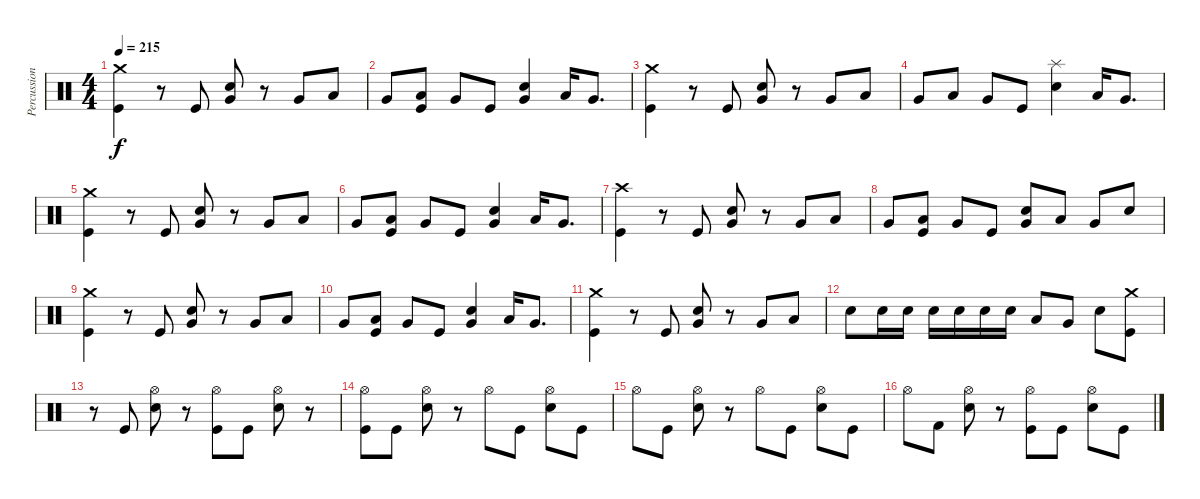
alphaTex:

\track ("Percussion" "Percussion") {instrument percussion}
\staff {score}
\articulation defaults
\ts (4 4)
\tempo 215
\clef neutral
\ks c
("Crash medium (hit)" "Kick (hit)").4{dy f} r.8 "Kick (hit)".8 ("Very Low Tom (hit)" "Electric Snare (hit)").8 r.8 "Very Low Tom (hit)".8 "Low Tom (hit)".8 |
"Very Low Tom (hit)".8 ("Low Tom (hit)" "Kick (hit)").8 "Very Low Tom (hit)".8 "Kick (hit)".8 ("Very Low Tom (hit)" "Electric Snare (hit)").4 "Low Tom (hit)".16 "Very Low Tom (hit)".8{d} |
("Crash medium (hit)" "Kick (hit)").4 r.8 "Kick (hit)".8 ("Very Low Tom (hit)" "Electric Snare (hit)").8 r.8 "Very Low Tom (hit)".8 "Low Tom (hit)".8 |
"Very Low Tom (hit)".8 "Low Tom (hit)".8 "Very Low Tom (hit)".8 "Kick (hit)".8 ("Splash (hit)" "Electric Snare (hit)").4 "Low Tom (hit)".16 "Very Low Tom (hit)".8{d} |
("Crash medium (hit)" "Kick (hit)").4 r.8 "Kick (hit)".8 ("Very Low Tom (hit)" "Electric Snare (hit)").8 r.8 "Very Low Tom (hit)".8 "Low Tom (hit)".8 |
"Very Low Tom (hit)".8 ("Low Tom (hit)" "Kick (hit)").8 "Very Low Tom (hit)".8 "Kick (hit)".8 ("Very Low Tom (hit)" "Electric Snare (hit)").4 "Low Tom (hit)".16 "Very Low Tom (hit)".8{d} |
("Crash high (hit)" "Kick (hit)").4 r.8 "Kick (hit)".8 ("Very Low Tom (hit)" "Electric Snare (hit)").8 r.8 "Very Low Tom (hit)".8 "Low Tom (hit)".8 |
"Very Low Tom (hit)".8 ("Low Tom (hit)" "Kick (hit)").8 "Very Low Tom (hit)".8 "Kick (hit)".8 ("Very Low Tom (hit)" "Electric Snare (hit)").8 "Low Tom (hit)".8 "Very Low Tom (hit)".8 "Electric Snare (hit)".8 |
("Crash medium (hit)" "Kick (hit)").4 r.8 "Kick (hit)".8 ("Very Low Tom (hit)" "Electric Snare (hit)").8 r.8 "Very Low Tom (hit)".8 "Low Tom (hit)".8 |
"Very Low Tom (hit)".8 ("Low Tom (hit)" "Kick (hit)").8 "Very Low Tom (hit)".8 "Kick (hit)".8 ("Very Low Tom (hit)" "Electric Snare (hit)").4 "Low Tom (hit)".16 "Very Low Tom (hit)".8{d} |
("Crash medium (hit)" "Kick (hit)").4 r.8 "Kick (hit)".8 ("Very Low Tom (hit)" "Electric Snare (hit)").8 r.8 "Very Low Tom (hit)".8 "Low Tom (hit)".8 |
"Electric Snare (hit)".8 "Electric Snare (hit)".16 "Electric Snare (hit)".16 "Electric Snare (hit)".16 "Electric Snare (hit)".16 "Electric Snare (hit)".16 "Electric Snare (hit)".16 "Low Tom (hit)".8 "Very Low Tom (hit)".8 "Electric Snare (hit)".8 ("Crash medium (hit)" "Kick (hit)").8 |
r.8 "Kick (hit)".8 ("Hi-Hat (open)" "Electric Snare (hit)").8 r.8 ("Hi-Hat (open)" "Kick (hit)").8 "Kick (hit)".8 ("Hi-Hat (open)" "Electric Snare (hit)").8 r.8 |
("Hi-Hat (open)" "Kick (hit)").8 "Kick (hit)".8 ("Hi-Hat (open)" "Electric Snare (hit)").8 r.8 "Hi-Hat (open)".8 "Kick (hit)".8 ("Hi-Hat (open)" "Electric Snare (hit)").8 "Kick (hit)".8 |
"Hi-Hat (open)".8 "Kick (hit)".8 ("Hi-Hat (open)" "Electric Snare (hit)").8 r.8 "Hi-Hat (open)".8 "Kick (hit)".8 ("Hi-Hat (open)" "Electric Snare (hit)").8 "Kick (hit)".8 |
"Hi-Hat (open)".8 "Kick (hit) 2".8 ("Hi-Hat (open)" "Electric Snare (hit)").8 r.8 ("Hi-Hat (open)" "Kick (hit)").8 "Kick (hit)".8 ("Hi-Hat (open)" "Electric Snare (hit)").8 "Kick (hit)".8
